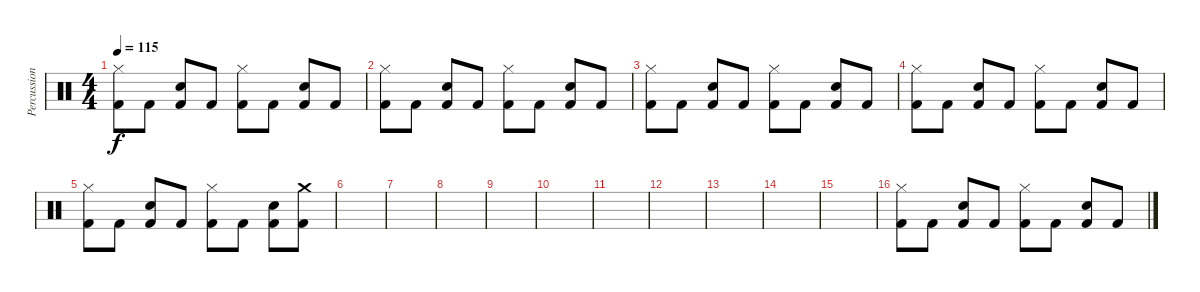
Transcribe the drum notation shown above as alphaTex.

\track ("Percussion" "Percussion") {instrument percussion}
\staff {score}
\articulation defaults
\ts (4 4)
\tempo 115
\clef neutral
\ks c
("Kick (hit) 2" "Hi-Hat (closed)").8{dy f} "Kick (hit) 2".8 ("Kick (hit) 2" "Snare (hit) 2").8 "Kick (hit) 2".8 ("Kick (hit) 2" "Hi-Hat (closed)").8 "Kick (hit) 2".8 ("Kick (hit) 2" "Snare (hit) 2").8 "Kick (hit) 2".8 |
("Kick (hit) 2" "Hi-Hat (closed)").8 "Kick (hit) 2".8 ("Kick (hit) 2" "Snare (hit) 2").8 "Kick (hit) 2".8 ("Kick (hit) 2" "Hi-Hat (closed)").8 "Kick (hit) 2".8 ("Kick (hit) 2" "Snare (hit) 2").8 "Kick (hit) 2".8 |
("Kick (hit) 2" "Hi-Hat (closed)").8 "Kick (hit) 2".8 ("Kick (hit) 2" "Snare (hit) 2").8 "Kick (hit) 2".8 ("Kick (hit) 2" "Hi-Hat (closed)").8 "Kick (hit) 2".8 ("Kick (hit) 2" "Snare (hit) 2").8 "Kick (hit) 2".8 |
("Kick (hit) 2" "Hi-Hat (closed)").8 "Kick (hit) 2".8 ("Kick (hit) 2" "Snare (hit) 2").8 "Kick (hit) 2".8 ("Kick (hit) 2" "Hi-Hat (closed)").8 "Kick (hit) 2".8 ("Kick (hit) 2" "Snare (hit) 2").8 "Kick (hit) 2".8 |
("Kick (hit) 2" "Hi-Hat (closed)").8 "Kick (hit) 2".8 ("Kick (hit) 2" "Snare (hit) 2").8 "Kick (hit) 2".8 ("Kick (hit) 2" "Hi-Hat (closed)").8 "Kick (hit) 2".8 ("Kick (hit) 2" "Snare (hit) 2").8 ("Kick (hit) 2" "Crash medium (hit)").8 |
|
|
|
|
|
|
|
|
|
|
("Kick (hit) 2" "Hi-Hat (closed)").8 "Kick (hit) 2".8 ("Kick (hit) 2" "Snare (hit) 2").8 "Kick (hit) 2".8 ("Kick (hit) 2" "Hi-Hat (closed)").8 "Kick (hit) 2".8 ("Kick (hit) 2" "Snare (hit) 2").8 "Kick (hit) 2".8
